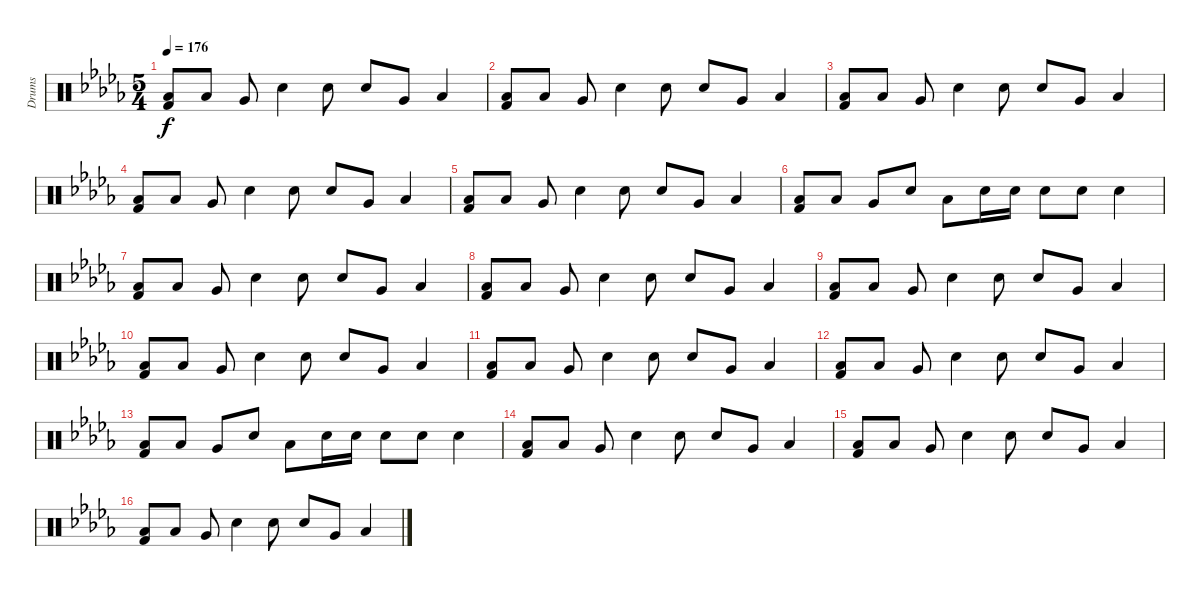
\track ("Drums" "Drums") {instrument percussion}
\staff {score}
\articulation defaults
\ts (5 4)
\tempo 176
\clef neutral
\ks db
("Low Floor Tom (hit)" "Kick (hit) 2").8{dy f} "Low Floor Tom (hit)".8 "Very Low Tom (hit)".8 "Snare (hit) 2".4 "Snare (hit) 2".8 "Snare (hit) 2".8 "Very Low Tom (hit)".8 "Low Floor Tom (hit)".4 |
("Low Floor Tom (hit)" "Kick (hit) 2").8 "Low Floor Tom (hit)".8 "Very Low Tom (hit)".8 "Snare (hit) 2".4 "Snare (hit) 2".8 "Snare (hit) 2".8 "Very Low Tom (hit)".8 "Low Floor Tom (hit)".4 |
("Low Floor Tom (hit)" "Kick (hit) 2").8 "Low Floor Tom (hit)".8 "Very Low Tom (hit)".8 "Snare (hit) 2".4 "Snare (hit) 2".8 "Snare (hit) 2".8 "Very Low Tom (hit)".8 "Low Floor Tom (hit)".4 |
("Low Floor Tom (hit)" "Kick (hit) 2").8 "Low Floor Tom (hit)".8 "Very Low Tom (hit)".8 "Snare (hit) 2".4 "Snare (hit) 2".8 "Snare (hit) 2".8 "Very Low Tom (hit)".8 "Low Floor Tom (hit)".4 |
("Low Floor Tom (hit)" "Kick (hit) 2").8 "Low Floor Tom (hit)".8 "Very Low Tom (hit)".8 "Snare (hit) 2".4 "Snare (hit) 2".8 "Snare (hit) 2".8 "Very Low Tom (hit)".8 "Low Floor Tom (hit)".4 |
("Low Floor Tom (hit)" "Kick (hit) 2").8 "Low Floor Tom (hit)".8 "Very Low Tom (hit)".8 "Snare (hit) 2".8 "Low Floor Tom (hit)".8 "Snare (hit) 2".16 "Snare (hit) 2".16 "Snare (hit) 2".8 "Snare (hit) 2".8 "Snare (hit) 2".4 |
("Low Floor Tom (hit)" "Kick (hit) 2").8 "Low Floor Tom (hit)".8 "Very Low Tom (hit)".8 "Snare (hit) 2".4 "Snare (hit) 2".8 "Snare (hit) 2".8 "Very Low Tom (hit)".8 "Low Floor Tom (hit)".4 |
("Low Floor Tom (hit)" "Kick (hit) 2").8 "Low Floor Tom (hit)".8 "Very Low Tom (hit)".8 "Snare (hit) 2".4 "Snare (hit) 2".8 "Snare (hit) 2".8 "Very Low Tom (hit)".8 "Low Floor Tom (hit)".4 |
("Low Floor Tom (hit)" "Kick (hit) 2").8 "Low Floor Tom (hit)".8 "Very Low Tom (hit)".8 "Snare (hit) 2".4 "Snare (hit) 2".8 "Snare (hit) 2".8 "Very Low Tom (hit)".8 "Low Floor Tom (hit)".4 |
("Low Floor Tom (hit)" "Kick (hit) 2").8 "Low Floor Tom (hit)".8 "Very Low Tom (hit)".8 "Snare (hit) 2".4 "Snare (hit) 2".8 "Snare (hit) 2".8 "Very Low Tom (hit)".8 "Low Floor Tom (hit)".4 |
("Low Floor Tom (hit)" "Kick (hit) 2").8 "Low Floor Tom (hit)".8 "Very Low Tom (hit)".8 "Snare (hit) 2".4 "Snare (hit) 2".8 "Snare (hit) 2".8 "Very Low Tom (hit)".8 "Low Floor Tom (hit)".4 |
("Low Floor Tom (hit)" "Kick (hit) 2").8 "Low Floor Tom (hit)".8 "Very Low Tom (hit)".8 "Snare (hit) 2".4 "Snare (hit) 2".8 "Snare (hit) 2".8 "Very Low Tom (hit)".8 "Low Floor Tom (hit)".4 |
("Low Floor Tom (hit)" "Kick (hit) 2").8 "Low Floor Tom (hit)".8 "Very Low Tom (hit)".8 "Snare (hit) 2".8 "Low Floor Tom (hit)".8 "Snare (hit) 2".16 "Snare (hit) 2".16 "Snare (hit) 2".8 "Snare (hit) 2".8 "Snare (hit) 2".4 |
("Low Floor Tom (hit)" "Kick (hit) 2").8 "Low Floor Tom (hit)".8 "Very Low Tom (hit)".8 "Snare (hit) 2".4 "Snare (hit) 2".8 "Snare (hit) 2".8 "Very Low Tom (hit)".8 "Low Floor Tom (hit)".4 |
("Low Floor Tom (hit)" "Kick (hit) 2").8 "Low Floor Tom (hit)".8 "Very Low Tom (hit)".8 "Snare (hit) 2".4 "Snare (hit) 2".8 "Snare (hit) 2".8 "Very Low Tom (hit)".8 "Low Floor Tom (hit)".4 |
("Low Floor Tom (hit)" "Kick (hit) 2").8 "Low Floor Tom (hit)".8 "Very Low Tom (hit)".8 "Snare (hit) 2".4 "Snare (hit) 2".8 "Snare (hit) 2".8 "Very Low Tom (hit)".8 "Low Floor Tom (hit)".4
